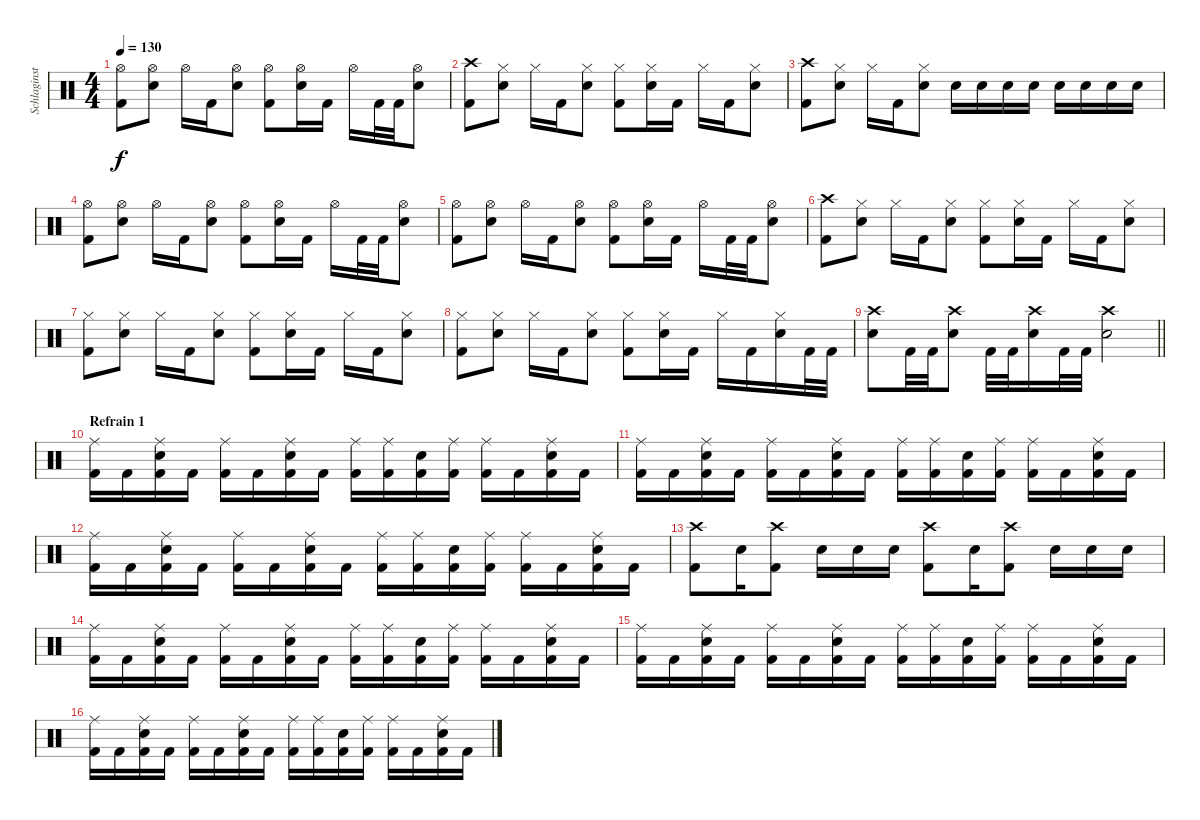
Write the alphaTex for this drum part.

\track ("Schlaginstrumente - Auswahl" "Schlaginst") {instrument percussion}
\staff {score}
\articulation defaults
\ts (4 4)
\tempo 130
\clef neutral
\ks c
("Hi-Hat (open)" "Kick (hit) 2").8{dy f} ("Hi-Hat (open)" "Snare (hit) 2").8 "Hi-Hat (open)".16 "Kick (hit) 2".16 ("Hi-Hat (open)" "Snare (hit) 2").8 ("Hi-Hat (open)" "Kick (hit) 2").8 ("Hi-Hat (open)" "Snare (hit) 2").16 "Kick (hit) 2".16 "Hi-Hat (open)".16 "Kick (hit) 2".32 "Kick (hit) 2".32 ("Hi-Hat (open)" "Snare (hit) 2").8 |
("Crash high (hit)" "Kick (hit) 2").8 ("Hi-Hat (closed)" "Snare (hit) 2").8 "Hi-Hat (closed)".16 "Kick (hit) 2".16 ("Hi-Hat (closed)" "Snare (hit) 2").8 ("Hi-Hat (closed)" "Kick (hit) 2").8 ("Hi-Hat (closed)" "Snare (hit) 2").16 "Kick (hit) 2".16 "Hi-Hat (closed)".16 "Kick (hit) 2".16 ("Hi-Hat (closed)" "Snare (hit) 2").8 |
("Crash high (hit)" "Kick (hit) 2").8 ("Hi-Hat (closed)" "Snare (hit) 2").8 "Hi-Hat (closed)".16 "Kick (hit) 2".16 ("Hi-Hat (closed)" "Snare (hit) 2").8 "Snare (hit) 2".16 "Snare (hit) 2".16 "Snare (hit) 2".16 "Snare (hit) 2".16 "Snare (hit) 2".16 "Snare (hit) 2".16 "Snare (hit) 2".16 "Snare (hit) 2".16 |
("Hi-Hat (open)" "Kick (hit) 2").8 ("Hi-Hat (open)" "Snare (hit) 2").8 "Hi-Hat (open)".16 "Kick (hit) 2".16 ("Hi-Hat (open)" "Snare (hit) 2").8 ("Hi-Hat (open)" "Kick (hit) 2").8 ("Hi-Hat (open)" "Snare (hit) 2").16 "Kick (hit) 2".16 "Hi-Hat (open)".16 "Kick (hit) 2".32 "Kick (hit) 2".32 ("Hi-Hat (open)" "Snare (hit) 2").8 |
("Hi-Hat (open)" "Kick (hit) 2").8 ("Hi-Hat (open)" "Snare (hit) 2").8 "Hi-Hat (open)".16 "Kick (hit) 2".16 ("Hi-Hat (open)" "Snare (hit) 2").8 ("Hi-Hat (open)" "Kick (hit) 2").8 ("Hi-Hat (open)" "Snare (hit) 2").16 "Kick (hit) 2".16 "Hi-Hat (open)".16 "Kick (hit) 2".32 "Kick (hit) 2".32 ("Hi-Hat (open)" "Snare (hit) 2").8 |
("Crash high (hit)" "Kick (hit) 2").8 ("Hi-Hat (closed)" "Snare (hit) 2").8 "Hi-Hat (closed)".16 "Kick (hit) 2".16 ("Hi-Hat (closed)" "Snare (hit) 2").8 ("Hi-Hat (closed)" "Kick (hit) 2").8 ("Hi-Hat (closed)" "Snare (hit) 2").16 "Kick (hit) 2".16 "Hi-Hat (closed)".16 "Kick (hit) 2".16 ("Hi-Hat (closed)" "Snare (hit) 2").8 |
("Hi-Hat (closed)" "Kick (hit) 2").8 ("Hi-Hat (closed)" "Snare (hit) 2").8 "Hi-Hat (closed)".16 "Kick (hit) 2".16 ("Hi-Hat (closed)" "Snare (hit) 2").8 ("Hi-Hat (closed)" "Kick (hit) 2").8 ("Hi-Hat (closed)" "Snare (hit) 2").16 "Kick (hit) 2".16 "Hi-Hat (closed)".16 "Kick (hit) 2".16 ("Hi-Hat (closed)" "Snare (hit) 2").8 |
("Hi-Hat (closed)" "Kick (hit) 2").8 ("Hi-Hat (closed)" "Snare (hit) 2").8 "Hi-Hat (closed)".16 "Kick (hit) 2".16 ("Hi-Hat (closed)" "Snare (hit) 2").8 ("Hi-Hat (closed)" "Kick (hit) 2").8 ("Hi-Hat (closed)" "Snare (hit) 2").16 "Kick (hit) 2".16 "Hi-Hat (closed)".16 "Kick (hit) 2".16 ("Hi-Hat (closed)" "Snare (hit) 2").16 "Kick (hit) 2".32 "Kick (hit) 2".32 |
\barLineRight lightlight
("Crash high (hit)" "Snare (hit) 2").8 "Kick (hit) 2".32 "Kick (hit) 2".32 ("Crash high (hit)" "Snare (hit) 2").8 "Kick (hit) 2".32 "Kick (hit) 2".32 ("Crash high (hit)" "Snare (hit) 2").16 "Kick (hit) 2".32 "Kick (hit) 2".32 ("Crash high (hit)" "Snare (hit) 2").2 |
\section ("" "Refrain 1")
("Ride (middle)" "Kick (hit) 2").16 "Kick (hit) 2".16 ("Ride (middle)" "Snare (hit) 2" "Kick (hit) 2").16 "Kick (hit) 2".16 ("Ride (middle)" "Kick (hit) 2").16 "Kick (hit) 2".16 ("Ride (middle)" "Snare (hit) 2" "Kick (hit) 2").16 "Kick (hit) 2".16 ("Ride (middle)" "Kick (hit) 2").16 ("Ride (middle)" "Kick (hit) 2").16 ("Snare (hit) 2" "Kick (hit) 2").16 ("Ride (middle)" "Kick (hit) 2").16 ("Ride (middle)" "Kick (hit) 2").16 "Kick (hit) 2".16 ("Ride (middle)" "Snare (hit) 2" "Kick (hit) 2").16 "Kick (hit) 2".16 |
("Ride (middle)" "Kick (hit) 2").16 "Kick (hit) 2".16 ("Ride (middle)" "Snare (hit) 2" "Kick (hit) 2").16 "Kick (hit) 2".16 ("Ride (middle)" "Kick (hit) 2").16 "Kick (hit) 2".16 ("Ride (middle)" "Snare (hit) 2" "Kick (hit) 2").16 "Kick (hit) 2".16 ("Ride (middle)" "Kick (hit) 2").16 ("Ride (middle)" "Kick (hit) 2").16 ("Snare (hit) 2" "Kick (hit) 2").16 ("Ride (middle)" "Kick (hit) 2").16 ("Ride (middle)" "Kick (hit) 2").16 "Kick (hit) 2".16 ("Ride (middle)" "Snare (hit) 2" "Kick (hit) 2").16 "Kick (hit) 2".16 |
("Ride (middle)" "Kick (hit) 2").16 "Kick (hit) 2".16 ("Ride (middle)" "Snare (hit) 2" "Kick (hit) 2").16 "Kick (hit) 2".16 ("Ride (middle)" "Kick (hit) 2").16 "Kick (hit) 2".16 ("Ride (middle)" "Snare (hit) 2" "Kick (hit) 2").16 "Kick (hit) 2".16 ("Ride (middle)" "Kick (hit) 2").16 ("Ride (middle)" "Kick (hit) 2").16 ("Snare (hit) 2" "Kick (hit) 2").16 ("Ride (middle)" "Kick (hit) 2").16 ("Ride (middle)" "Kick (hit) 2").16 "Kick (hit) 2".16 ("Ride (middle)" "Snare (hit) 2" "Kick (hit) 2").16 "Kick (hit) 2".16 |
("Crash high (hit)" "Kick (hit) 2").8 "Snare (hit) 2".16 ("Crash high (hit)" "Kick (hit) 2").8 "Snare (hit) 2".16 "Snare (hit) 2".16 "Snare (hit) 2".16 ("Crash high (hit)" "Kick (hit) 2").8 "Snare (hit) 2".16 ("Crash high (hit)" "Kick (hit) 2").8 "Snare (hit) 2".16 "Snare (hit) 2".16 "Snare (hit) 2".16 |
("Ride (middle)" "Kick (hit) 2").16 "Kick (hit) 2".16 ("Ride (middle)" "Snare (hit) 2" "Kick (hit) 2").16 "Kick (hit) 2".16 ("Ride (middle)" "Kick (hit) 2").16 "Kick (hit) 2".16 ("Ride (middle)" "Snare (hit) 2" "Kick (hit) 2").16 "Kick (hit) 2".16 ("Ride (middle)" "Kick (hit) 2").16 ("Ride (middle)" "Kick (hit) 2").16 ("Snare (hit) 2" "Kick (hit) 2").16 ("Ride (middle)" "Kick (hit) 2").16 ("Ride (middle)" "Kick (hit) 2").16 "Kick (hit) 2".16 ("Ride (middle)" "Snare (hit) 2" "Kick (hit) 2").16 "Kick (hit) 2".16 |
("Ride (middle)" "Kick (hit) 2").16 "Kick (hit) 2".16 ("Ride (middle)" "Snare (hit) 2" "Kick (hit) 2").16 "Kick (hit) 2".16 ("Ride (middle)" "Kick (hit) 2").16 "Kick (hit) 2".16 ("Ride (middle)" "Snare (hit) 2" "Kick (hit) 2").16 "Kick (hit) 2".16 ("Ride (middle)" "Kick (hit) 2").16 ("Ride (middle)" "Kick (hit) 2").16 ("Snare (hit) 2" "Kick (hit) 2").16 ("Ride (middle)" "Kick (hit) 2").16 ("Ride (middle)" "Kick (hit) 2").16 "Kick (hit) 2".16 ("Ride (middle)" "Snare (hit) 2" "Kick (hit) 2").16 "Kick (hit) 2".16 |
("Ride (middle)" "Kick (hit) 2").16 "Kick (hit) 2".16 ("Ride (middle)" "Snare (hit) 2" "Kick (hit) 2").16 "Kick (hit) 2".16 ("Ride (middle)" "Kick (hit) 2").16 "Kick (hit) 2".16 ("Ride (middle)" "Snare (hit) 2" "Kick (hit) 2").16 "Kick (hit) 2".16 ("Ride (middle)" "Kick (hit) 2").16 ("Ride (middle)" "Kick (hit) 2").16 ("Snare (hit) 2" "Kick (hit) 2").16 ("Ride (middle)" "Kick (hit) 2").16 ("Ride (middle)" "Kick (hit) 2").16 "Kick (hit) 2".16 ("Ride (middle)" "Snare (hit) 2" "Kick (hit) 2").16 "Kick (hit) 2".16
